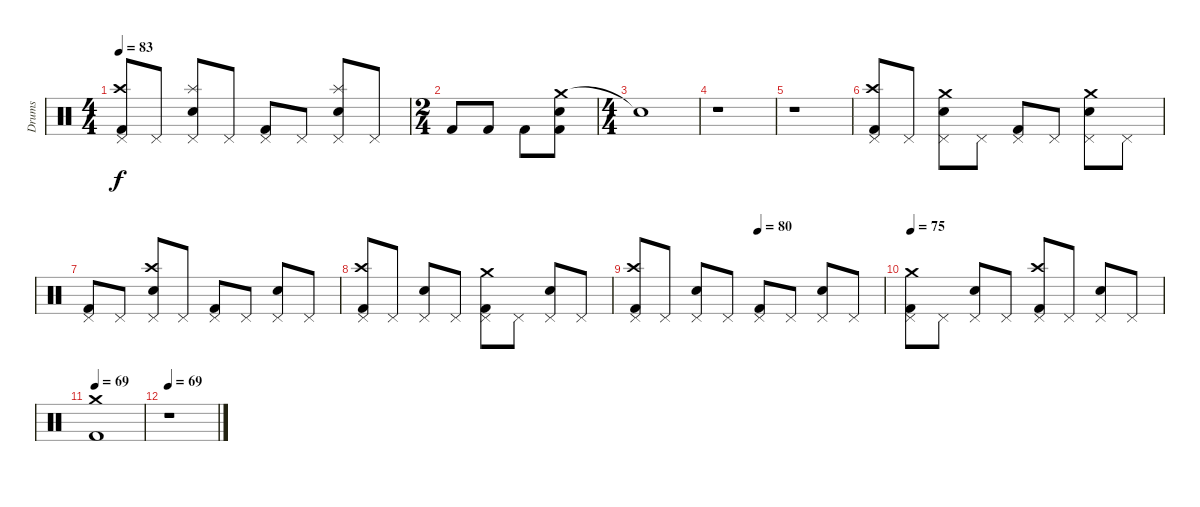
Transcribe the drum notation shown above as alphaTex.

\track ("Drums" "Drums") {instrument percussion}
\staff {score}
\articulation defaults
\ts (4 4)
\tempo 83
\clef neutral
\ks c
("Pedal Hi-Hat (hit)" "Crash high (hit)" "Kick (hit) 2").8{dy f} "Pedal Hi-Hat (hit)".8 ("Pedal Hi-Hat (hit)" "Splash (hit)" "Snare (hit) 2").8 "Pedal Hi-Hat (hit)".8 ("Pedal Hi-Hat (hit)" "Kick (hit) 2").8 "Pedal Hi-Hat (hit)".8 ("Pedal Hi-Hat (hit)" "Splash (hit)" "Snare (hit) 2").8 "Pedal Hi-Hat (hit)".8 |
\ts (2 4)
"Kick (hit) 2".8 "Kick (hit) 2".8 "Kick (hit) 2".8 ("Crash medium (hit)" "Snare (hit) 2" "Kick (hit) 2").8 |
\ts (4 4)
"Snare (hit)"{t}.1 |
r.1 |
r.1 |
("Pedal Hi-Hat (hit)" "Crash high (hit)" "Kick (hit) 2").8 "Pedal Hi-Hat (hit)".8 ("Pedal Hi-Hat (hit)" "Snare (hit) 2" "Crash medium (hit)").8 "Pedal Hi-Hat (hit)".8 ("Pedal Hi-Hat (hit)" "Kick (hit) 2").8 "Pedal Hi-Hat (hit)".8 ("Pedal Hi-Hat (hit)" "Crash medium (hit)" "Snare (hit) 2").8 "Pedal Hi-Hat (hit)".8 |
("Kick (hit) 2" "Pedal Hi-Hat (hit)").8 "Pedal Hi-Hat (hit)".8 ("Snare (hit) 2" "Pedal Hi-Hat (hit)" "Crash high (hit)").8 "Pedal Hi-Hat (hit)".8 ("Kick (hit) 2" "Pedal Hi-Hat (hit)").8 "Pedal Hi-Hat (hit)".8 ("Snare (hit) 2" "Pedal Hi-Hat (hit)").8 "Pedal Hi-Hat (hit)".8 |
("Pedal Hi-Hat (hit)" "Kick (hit) 2" "Crash high (hit)").8 "Pedal Hi-Hat (hit)".8 ("Pedal Hi-Hat (hit)" "Snare (hit) 2").8 "Pedal Hi-Hat (hit)".8 ("Pedal Hi-Hat (hit)" "Crash medium (hit)" "Kick (hit) 2").8 "Pedal Hi-Hat (hit)".8 ("Pedal Hi-Hat (hit)" "Snare (hit) 2").8 "Pedal Hi-Hat (hit)".8 |
\tempo (80 0.5)
("Pedal Hi-Hat (hit)" "Kick (hit) 2" "Crash high (hit)").8 "Pedal Hi-Hat (hit)".8 ("Pedal Hi-Hat (hit)" "Snare (hit) 2").8 "Pedal Hi-Hat (hit)".8 ("Pedal Hi-Hat (hit)" "Kick (hit) 2").8 "Pedal Hi-Hat (hit)".8 ("Pedal Hi-Hat (hit)" "Snare (hit) 2").8 "Pedal Hi-Hat (hit)".8 |
\tempo 75
("Pedal Hi-Hat (hit)" "Kick (hit) 2" "Crash medium (hit)").8 "Pedal Hi-Hat (hit)".8 ("Pedal Hi-Hat (hit)" "Snare (hit) 2").8 "Pedal Hi-Hat (hit)".8 ("Pedal Hi-Hat (hit)" "Kick (hit) 2" "Crash high (hit)").8 "Pedal Hi-Hat (hit)".8 ("Pedal Hi-Hat (hit)" "Snare (hit) 2").8 "Pedal Hi-Hat (hit)".8 |
\tempo 69
("Kick (hit) 2" "Crash medium (hit)").1 |
\tempo 69
r.1
